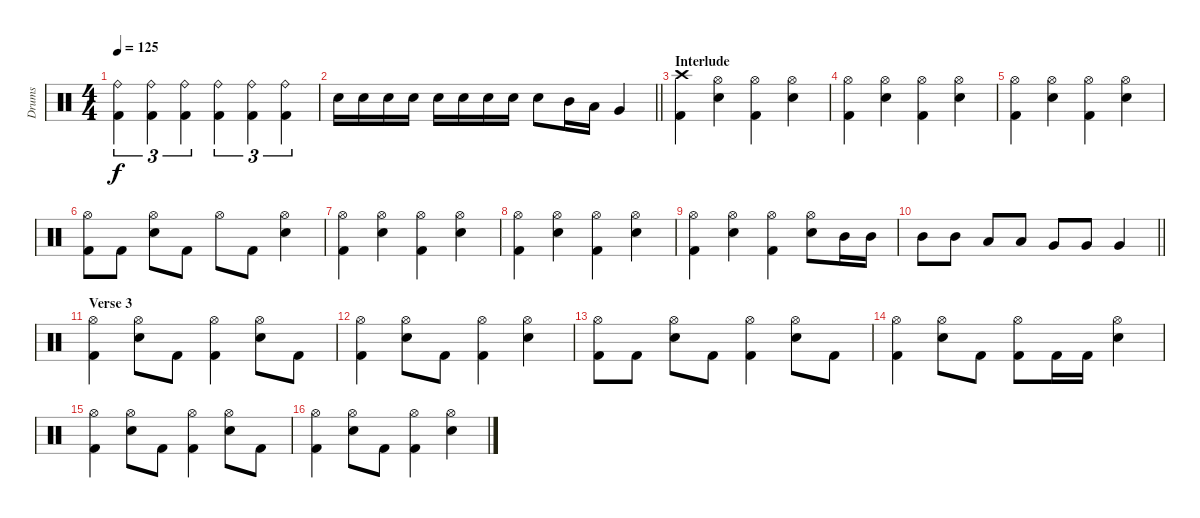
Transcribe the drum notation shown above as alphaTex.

\track ("Drums" "Drums") {instrument percussion}
\staff {score}
\articulation defaults
\ts (4 4)
\tempo 125
\clef neutral
\ks c
("Ride (bell)" "Kick (hit) 2").4{tu (3 2) dy f} ("Ride (bell)" "Kick (hit) 2").4{tu (3 2)} ("Ride (bell)" "Kick (hit) 2").4{tu (3 2)} ("Ride (bell)" "Kick (hit) 2").4{tu (3 2)} ("Ride (bell)" "Kick (hit) 2").4{tu (3 2)} ("Ride (bell)" "Kick (hit) 2").4{tu (3 2)} |
\barLineRight lightlight "Snare (hit) 2".16 "Snare (hit) 2".16 "Snare (hit) 2".16 "Snare (hit) 2".16 "Snare (hit) 2".16 "Snare (hit) 2".16 "Snare (hit) 2".16 "Snare (hit) 2".16 "Snare (hit) 2".8 "Mid Tom (hit)".16 "Low Tom (hit)".16 "Very Low Tom (hit)".4
|
\section ("" "Interlude")
("Crash high (hit)" "Kick (hit) 2").4 ("Hi-Hat (open)" "Snare (hit) 2").4 ("Hi-Hat (open)" "Kick (hit) 2").4 ("Hi-Hat (open)" "Snare (hit) 2").4 |
("Hi-Hat (open)" "Kick (hit) 2").4 ("Hi-Hat (open)" "Snare (hit) 2").4 ("Hi-Hat (open)" "Kick (hit) 2").4 ("Hi-Hat (open)" "Snare (hit) 2").4 |
("Hi-Hat (open)" "Kick (hit) 2").4 ("Hi-Hat (open)" "Snare (hit) 2").4 ("Hi-Hat (open)" "Kick (hit) 2").4 ("Hi-Hat (open)" "Snare (hit) 2").4 |
("Hi-Hat (open)" "Kick (hit) 2").8 "Kick (hit) 2".8 ("Hi-Hat (open)" "Snare (hit) 2").8 "Kick (hit) 2".8 "Hi-Hat (open)".8 "Kick (hit) 2".8 ("Hi-Hat (open)" "Snare (hit) 2").4 |
("Hi-Hat (open)" "Kick (hit) 2").4 ("Hi-Hat (open)" "Snare (hit) 2").4 ("Hi-Hat (open)" "Kick (hit) 2").4 ("Hi-Hat (open)" "Snare (hit) 2").4 |
("Hi-Hat (open)" "Kick (hit) 2").4 ("Hi-Hat (open)" "Snare (hit) 2").4 ("Hi-Hat (open)" "Kick (hit) 2").4 ("Hi-Hat (open)" "Snare (hit) 2").4 |
("Hi-Hat (open)" "Kick (hit) 2").4 ("Hi-Hat (open)" "Snare (hit) 2").4 ("Hi-Hat (open)" "Kick (hit) 2").4 ("Hi-Hat (open)" "Snare (hit) 2").8 "Mid Tom (hit)".16 "Mid Tom (hit)".16 |
\barLineRight lightlight "Mid Tom (hit)".8 "Mid Tom (hit)".8 "Low Tom (hit)".8 "Low Tom (hit)".8 "Very Low Tom (hit)".8 "Very Low Tom (hit)".8 "Very Low Tom (hit)".4
|
\section ("" "Verse 3")
("Hi-Hat (open)" "Kick (hit) 2").4 ("Hi-Hat (open)" "Snare (hit) 2").8 "Kick (hit) 2".8 ("Hi-Hat (open)" "Kick (hit) 2").4 ("Hi-Hat (open)" "Snare (hit) 2").8 "Kick (hit) 2".8 |
("Hi-Hat (open)" "Kick (hit) 2").4 ("Hi-Hat (open)" "Snare (hit) 2").8 "Kick (hit) 2".8 ("Hi-Hat (open)" "Kick (hit) 2").4 ("Hi-Hat (open)" "Snare (hit) 2").4 |
("Hi-Hat (open)" "Kick (hit) 2").8 "Kick (hit) 2".8 ("Hi-Hat (open)" "Snare (hit) 2").8 "Kick (hit) 2".8 ("Hi-Hat (open)" "Kick (hit) 2").4 ("Hi-Hat (open)" "Snare (hit) 2").8 "Kick (hit) 2".8 |
("Hi-Hat (open)" "Kick (hit) 2").4 ("Hi-Hat (open)" "Snare (hit) 2").8 "Kick (hit) 2".8 ("Hi-Hat (open)" "Kick (hit) 2").8 "Kick (hit) 2".16 "Kick (hit) 2".16 ("Hi-Hat (open)" "Snare (hit) 2").4 |
("Hi-Hat (open)" "Kick (hit) 2").4 ("Hi-Hat (open)" "Snare (hit) 2").8 "Kick (hit) 2".8 ("Hi-Hat (open)" "Kick (hit) 2").4 ("Hi-Hat (open)" "Snare (hit) 2").8 "Kick (hit) 2".8 |
("Hi-Hat (open)" "Kick (hit) 2").4 ("Hi-Hat (open)" "Snare (hit) 2").8 "Kick (hit) 2".8 ("Hi-Hat (open)" "Kick (hit) 2").4 ("Hi-Hat (open)" "Snare (hit) 2").4
